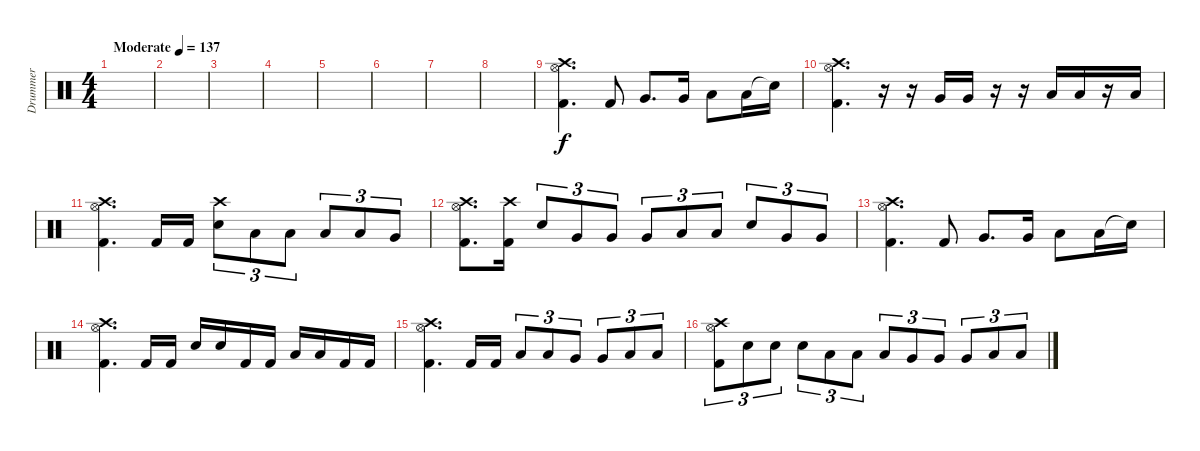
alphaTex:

\track ("Drummer" "Drummer") {instrument percussion}
\staff {score}
\articulation defaults
\ts (4 4)
\tempo (137 "Moderate")
\clef neutral
\ks c
|
|
|
|
|
|
|
|
("Crash high (hit)" "Hi-Hat (open)" "Kick (hit) 2").4{d} "Kick (hit) 2".8 "Very Low Tom (hit)".8{d} "Very Low Tom (hit)".16 "Low Floor Tom (hit)".8 "Low Floor Tom (hit)".16 "Snare (hit)"{t}.16 |
("Crash high (hit)" "Hi-Hat (open)" "Kick (hit) 2").4{d} r.16 r.16 "Very Low Tom (hit)".16 "Very Low Tom (hit)".16 r.16 r.16 "Low Floor Tom (hit)".16 "Low Floor Tom (hit)".16 r.16 "Low Floor Tom (hit)".16 |
("Crash high (hit)" "Hi-Hat (open)" "Kick (hit) 2").4{d} "Kick (hit) 2".16 "Kick (hit) 2".16 ("Electric Snare (hit)" "Crash high (hit)").8{tu (3 2)} "Low Tom (hit)".8{tu (3 2)} "Low Tom (hit)".8{tu (3 2)} "Low Tom (hit)".8{tu (3 2)} "Low Tom (hit)".8{tu (3 2)} "Very Low Tom (hit)".8{tu (3 2)} |
("Crash high (hit)" "Hi-Hat (open)" "Kick (hit) 2").8{d} ("Kick (hit) 2" "Crash high (hit)").16 "Electric Snare (hit)".8{tu (3 2)} "Very Low Tom (hit)".8{tu (3 2)} "Very Low Tom (hit)".8{tu (3 2)} "Very Low Tom (hit)".8{tu (3 2)} "Low Floor Tom (hit)".8{tu (3 2)} "Low Floor Tom (hit)".8{tu (3 2)} "Electric Snare (hit)".8{tu (3 2)} "Very Low Tom (hit)".8{tu (3 2)} "Very Low Tom (hit)".8{tu (3 2)} |
("Crash high (hit)" "Hi-Hat (open)" "Kick (hit) 2").4{d} "Kick (hit) 2".8 "Very Low Tom (hit)".8{d} "Very Low Tom (hit)".16 "Low Floor Tom (hit)".8 "Low Floor Tom (hit)".16 "Snare (hit)"{t}.16 |
("Crash high (hit)" "Hi-Hat (open)" "Kick (hit) 2").4{d} "Kick (hit) 2".16 "Kick (hit) 2".16 "Electric Snare (hit)".16 "Electric Snare (hit)".16 "Kick (hit) 2".16 "Kick (hit) 2".16 "Low Floor Tom (hit)".16 "Low Floor Tom (hit)".16 "Kick (hit) 2".16 "Kick (hit) 2".16 |
("Crash high (hit)" "Hi-Hat (open)" "Kick (hit) 2").4{d} "Kick (hit) 2".16 "Kick (hit) 2".16 "Low Tom (hit)".8{tu (3 2)} "Low Tom (hit)".8{tu (3 2)} "Very Low Tom (hit)".8{tu (3 2)} "Very Low Tom (hit)".8{tu (3 2)} "Low Floor Tom (hit)".8{tu (3 2)} "Low Floor Tom (hit)".8{tu (3 2)} |
("Crash high (hit)" "Hi-Hat (open)" "Kick (hit) 2").8{tu (3 2)} "Electric Snare (hit)".8{tu (3 2)} "Electric Snare (hit)".8{tu (3 2)} "Electric Snare (hit)".8{tu (3 2)} "Low Tom (hit)".8{tu (3 2)} "Low Tom (hit)".8{tu (3 2)} "Low Tom (hit)".8{tu (3 2)} "Very Low Tom (hit)".8{tu (3 2)} "Very Low Tom (hit)".8{tu (3 2)} "Very Low Tom (hit)".8{tu (3 2)} "Low Floor Tom (hit)".8{tu (3 2)} "Low Floor Tom (hit)".8{tu (3 2)}
